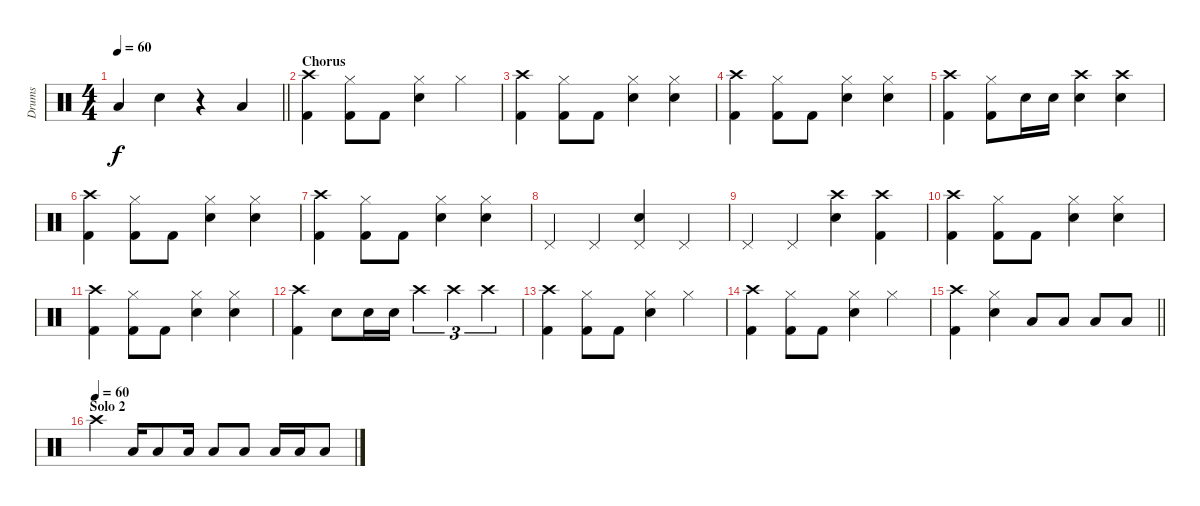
\track ("Drums" "Drums") {instrument percussion}
\staff {score}
\articulation defaults
\ts (4 4)
\tempo 60
\clef neutral
\barLineRight lightlight
\ks c "Low Tom (hit)".4{dy f} "Snare (hit) 2".4
r.4 "Low Tom (hit)".4 |
\section ("" "Chorus")
("Crash high (hit)" "Kick (hit) 2").4 ("Hi-Hat (closed)" "Kick (hit) 2").8 "Kick (hit) 2".8 ("Hi-Hat (closed)" "Snare (hit) 2").4 "Hi-Hat (closed)".4 |
("Crash high (hit)" "Kick (hit) 2").4 ("Hi-Hat (closed)" "Kick (hit) 2").8 "Kick (hit) 2".8 ("Hi-Hat (closed)" "Snare (hit) 2").4 ("Hi-Hat (closed)" "Snare (hit) 2").4 |
("Crash high (hit)" "Kick (hit) 2").4 ("Hi-Hat (closed)" "Kick (hit) 2").8 "Kick (hit) 2".8 ("Hi-Hat (closed)" "Snare (hit) 2").4 ("Hi-Hat (closed)" "Snare (hit) 2").4 |
("Crash high (hit)" "Kick (hit) 2").4 ("Hi-Hat (closed)" "Kick (hit) 2").8 "Snare (hit) 2".16 "Snare (hit) 2".16 ("Crash high (hit)" "Snare (hit) 2").4 ("Crash high (hit)" "Snare (hit) 2").4 |
("Crash high (hit)" "Kick (hit) 2").4 ("Hi-Hat (closed)" "Kick (hit) 2").8 "Kick (hit) 2".8 ("Hi-Hat (closed)" "Snare (hit) 2").4 ("Hi-Hat (closed)" "Snare (hit) 2").4 |
("Crash high (hit)" "Kick (hit) 2").4 ("Hi-Hat (closed)" "Kick (hit) 2").8 "Kick (hit) 2".8 ("Hi-Hat (closed)" "Snare (hit) 2").4 ("Hi-Hat (closed)" "Snare (hit) 2").4 |
"Pedal Hi-Hat (hit)".4 "Pedal Hi-Hat (hit)".4 ("Pedal Hi-Hat (hit)" "Snare (hit) 2").4 "Pedal Hi-Hat (hit)".4 |
"Pedal Hi-Hat (hit)".4 "Pedal Hi-Hat (hit)".4 ("Crash high (hit)" "Snare (hit) 2").4 ("Crash high (hit)" "Kick (hit) 2").4 |
("Crash high (hit)" "Kick (hit) 2").4 ("Hi-Hat (closed)" "Kick (hit) 2").8 "Kick (hit) 2".8 ("Hi-Hat (closed)" "Snare (hit) 2").4 ("Hi-Hat (closed)" "Snare (hit) 2").4 |
("Crash high (hit)" "Kick (hit) 2").4 ("Hi-Hat (closed)" "Kick (hit) 2").8 "Kick (hit) 2".8 ("Hi-Hat (closed)" "Snare (hit) 2").4 ("Hi-Hat (closed)" "Snare (hit) 2").4 |
("Crash high (hit)" "Kick (hit) 2").4 "Snare (hit) 2".8 "Snare (hit) 2".16 "Snare (hit) 2".16 "Crash high (hit)".4{tu (3 2)} "Crash high (hit)".4{tu (3 2)} "Crash high (hit)".4{tu (3 2)} |
("Crash high (hit)" "Kick (hit) 2").4 ("Hi-Hat (closed)" "Kick (hit) 2").8 "Kick (hit) 2".8 ("Hi-Hat (closed)" "Snare (hit) 2").4 "Hi-Hat (closed)".4 |
("Crash high (hit)" "Kick (hit) 2").4 ("Hi-Hat (closed)" "Kick (hit) 2").8 "Kick (hit) 2".8 ("Hi-Hat (closed)" "Snare (hit) 2").4 "Hi-Hat (closed)".4 |
\barLineRight lightlight
("Crash high (hit)" "Kick (hit) 2").4 ("Hi-Hat (closed)" "Snare (hit) 2").4 "Low Tom (hit)".8 "Low Tom (hit)".8 "Low Tom (hit)".8 "Low Tom (hit)".8 |
\section ("" "Solo 2")
\tempo (60)
"Crash high (hit)".4 "Low Tom (hit)".16 "Low Tom (hit)".8 "Low Tom (hit)".16 "Low Tom (hit)".8 "Low Tom (hit)".8 "Low Tom (hit)".16 "Low Tom (hit)".16 "Low Tom (hit)".8
